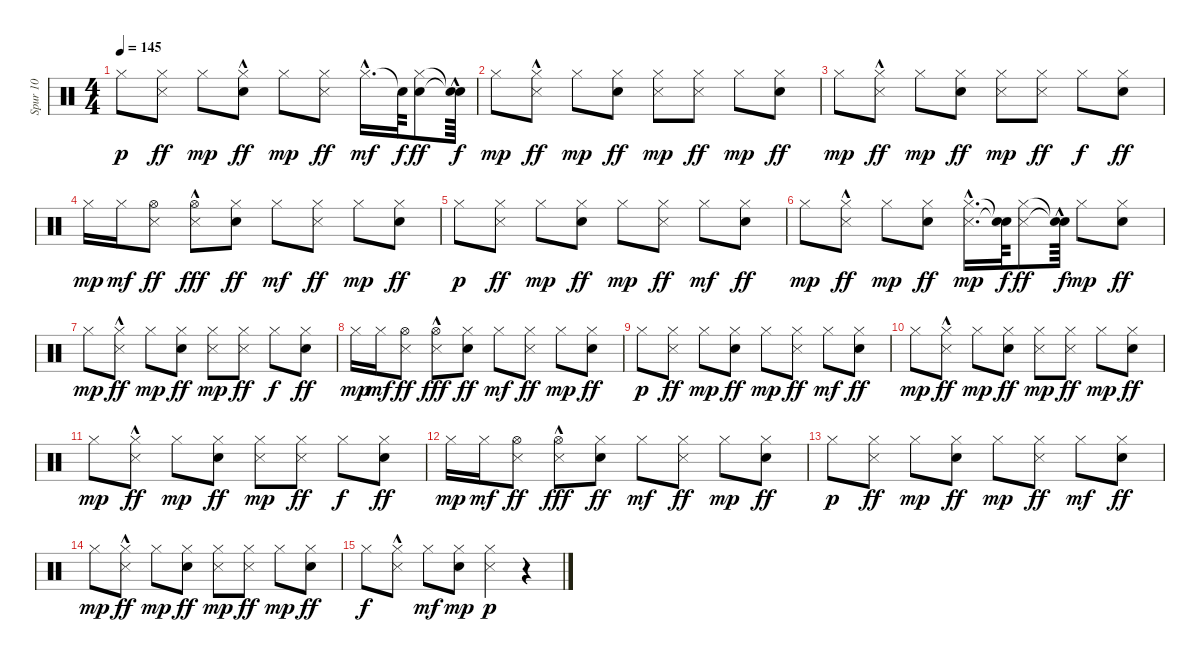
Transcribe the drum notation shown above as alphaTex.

\track ("Spur 10" "Spur 10") {instrument percussion}
\staff {score}
\articulation defaults
\ts (4 4)
\tempo 145
\clef neutral
\ks c "Hi-Hat (closed)".8{dy p}
("Metronome (hit)" "Hi-Hat (closed)").8{dy ff} "Hi-Hat (closed)".8{dy mp} ("Electric Snare (hit)"{hac} "Hi-Hat (closed)").8{dy ff} "Hi-Hat (closed)".8{dy mp} ("Metronome (hit)" "Hi-Hat (closed)").8{dy ff} "Hi-Hat (closed)"{hac}.16{d dy mf} "Snare (hit)"{t}.64{dy f} ("Electric Snare (hit)" "Hi-Hat (closed)").8{dy ff} ("Snare (hit)"{hac t} "Snare (hit)"{t}).64{dy f} |
"Hi-Hat (closed)".8{dy mp} ("Metronome (hit)"{hac} "Hi-Hat (closed)").8{dy ff} "Hi-Hat (closed)".8{dy mp} ("Electric Snare (hit)" "Hi-Hat (closed)").8{dy ff} ("Metronome (hit)" "Hi-Hat (closed)").8{dy mp} ("Metronome (hit)" "Hi-Hat (closed)").8{dy ff} "Hi-Hat (closed)".8{dy mp} ("Electric Snare (hit)" "Hi-Hat (closed)").8{dy ff} |
"Hi-Hat (closed)".8{dy mp} ("Metronome (hit)"{hac} "Hi-Hat (closed)").8{dy ff} "Hi-Hat (closed)".8{dy mp} ("Electric Snare (hit)" "Hi-Hat (closed)").8{dy ff} ("Metronome (hit)" "Hi-Hat (closed)").8{dy mp} ("Metronome (hit)" "Hi-Hat (closed)").8{dy ff} "Hi-Hat (closed)".8{dy f} ("Electric Snare (hit)" "Hi-Hat (closed)").8{dy ff} |
"Hi-Hat (closed)".16{dy mp} "Hi-Hat (closed)".16{dy mf} ("Metronome (hit)" "Hi-Hat (open)").8{dy ff} ("Metronome (hit)"{hac} "Hi-Hat (open)").8{dy fff} ("Electric Snare (hit)" "Hi-Hat (closed)").8{dy ff} "Hi-Hat (closed)".8{dy mf} ("Metronome (hit)" "Hi-Hat (closed)").8{dy ff} "Hi-Hat (closed)".8{dy mp} ("Electric Snare (hit)" "Hi-Hat (closed)").8{dy ff} |
"Hi-Hat (closed)".8{dy p} ("Metronome (hit)" "Hi-Hat (closed)").8{dy ff} "Hi-Hat (closed)".8{dy mp} ("Electric Snare (hit)" "Hi-Hat (closed)").8{dy ff} "Hi-Hat (closed)".8{dy mp} ("Metronome (hit)" "Hi-Hat (closed)").8{dy ff} "Hi-Hat (closed)".8{dy mf} ("Electric Snare (hit)" "Hi-Hat (closed)").8{dy ff} |
"Hi-Hat (closed)".8{dy mp} ("Metronome (hit)"{hac} "Hi-Hat (closed)").8{dy ff} "Hi-Hat (closed)".8{dy mp} ("Electric Snare (hit)" "Hi-Hat (closed)").8{dy ff} ("Metronome (hit)"{hac} "Hi-Hat (closed)"{hac}).16{d dy mp} ("Snare (hit)"{t} "Snare (hit)"{t}).64{dy f} ("Metronome (hit)" "Hi-Hat (closed)").8{dy ff} ("Snare (hit)"{hac t} "Snare (hit)"{t}).64{dy f} "Hi-Hat (closed)".8{dy mp} ("Electric Snare (hit)" "Hi-Hat (closed)").8{dy ff} |
"Hi-Hat (closed)".8{dy mp} ("Metronome (hit)"{hac} "Hi-Hat (closed)").8{dy ff} "Hi-Hat (closed)".8{dy mp} ("Electric Snare (hit)" "Hi-Hat (closed)").8{dy ff} ("Metronome (hit)" "Hi-Hat (closed)").8{dy mp} ("Metronome (hit)" "Hi-Hat (closed)").8{dy ff} "Hi-Hat (closed)".8{dy f} ("Electric Snare (hit)" "Hi-Hat (closed)").8{dy ff} |
"Hi-Hat (closed)".16{dy mp} "Hi-Hat (closed)".16{dy mf} ("Metronome (hit)" "Hi-Hat (open)").8{dy ff} ("Metronome (hit)"{hac} "Hi-Hat (open)").8{dy fff} ("Electric Snare (hit)" "Hi-Hat (closed)").8{dy ff} "Hi-Hat (closed)".8{dy mf} ("Metronome (hit)" "Hi-Hat (closed)").8{dy ff} "Hi-Hat (closed)".8{dy mp} ("Electric Snare (hit)" "Hi-Hat (closed)").8{dy ff} |
"Hi-Hat (closed)".8{dy p} ("Metronome (hit)" "Hi-Hat (closed)").8{dy ff} "Hi-Hat (closed)".8{dy mp} ("Electric Snare (hit)" "Hi-Hat (closed)").8{dy ff} "Hi-Hat (closed)".8{dy mp} ("Metronome (hit)" "Hi-Hat (closed)").8{dy ff} "Hi-Hat (closed)".8{dy mf} ("Electric Snare (hit)" "Hi-Hat (closed)").8{dy ff} |
"Hi-Hat (closed)".8{dy mp} ("Metronome (hit)"{hac} "Hi-Hat (closed)").8{dy ff} "Hi-Hat (closed)".8{dy mp} ("Electric Snare (hit)" "Hi-Hat (closed)").8{dy ff} ("Metronome (hit)" "Hi-Hat (closed)").8{dy mp} ("Metronome (hit)" "Hi-Hat (closed)").8{dy ff} "Hi-Hat (closed)".8{dy mp} ("Electric Snare (hit)" "Hi-Hat (closed)").8{dy ff} |
"Hi-Hat (closed)".8{dy mp} ("Metronome (hit)"{hac} "Hi-Hat (closed)").8{dy ff} "Hi-Hat (closed)".8{dy mp} ("Electric Snare (hit)" "Hi-Hat (closed)").8{dy ff} ("Metronome (hit)" "Hi-Hat (closed)").8{dy mp} ("Metronome (hit)" "Hi-Hat (closed)").8{dy ff} "Hi-Hat (closed)".8{dy f} ("Electric Snare (hit)" "Hi-Hat (closed)").8{dy ff} |
"Hi-Hat (closed)".16{dy mp} "Hi-Hat (closed)".16{dy mf} ("Metronome (hit)" "Hi-Hat (open)").8{dy ff} ("Metronome (hit)"{hac} "Hi-Hat (open)").8{dy fff} ("Electric Snare (hit)" "Hi-Hat (closed)").8{dy ff} "Hi-Hat (closed)".8{dy mf} ("Metronome (hit)" "Hi-Hat (closed)").8{dy ff} "Hi-Hat (closed)".8{dy mp} ("Electric Snare (hit)" "Hi-Hat (closed)").8{dy ff} |
"Hi-Hat (closed)".8{dy p} ("Metronome (hit)" "Hi-Hat (closed)").8{dy ff} "Hi-Hat (closed)".8{dy mp} ("Electric Snare (hit)" "Hi-Hat (closed)").8{dy ff} "Hi-Hat (closed)".8{dy mp} ("Metronome (hit)" "Hi-Hat (closed)").8{dy ff} "Hi-Hat (closed)".8{dy mf} ("Electric Snare (hit)" "Hi-Hat (closed)").8{dy ff} |
"Hi-Hat (closed)".8{dy mp} ("Metronome (hit)"{hac} "Hi-Hat (closed)").8{dy ff} "Hi-Hat (closed)".8{dy mp} ("Electric Snare (hit)" "Hi-Hat (closed)").8{dy ff} ("Metronome (hit)" "Hi-Hat (closed)").8{dy mp} ("Metronome (hit)" "Hi-Hat (closed)").8{dy ff} "Hi-Hat (closed)".8{dy mp} ("Electric Snare (hit)" "Hi-Hat (closed)").8{dy ff} |
"Hi-Hat (closed)".8{dy f} ("Metronome (hit)"{hac} "Hi-Hat (closed)").8 "Hi-Hat (closed)".8{dy mf} ("Electric Snare (hit)" "Hi-Hat (closed)").8{dy mp} ("Metronome (hit)" "Hi-Hat (closed)").4{dy p} r.4
